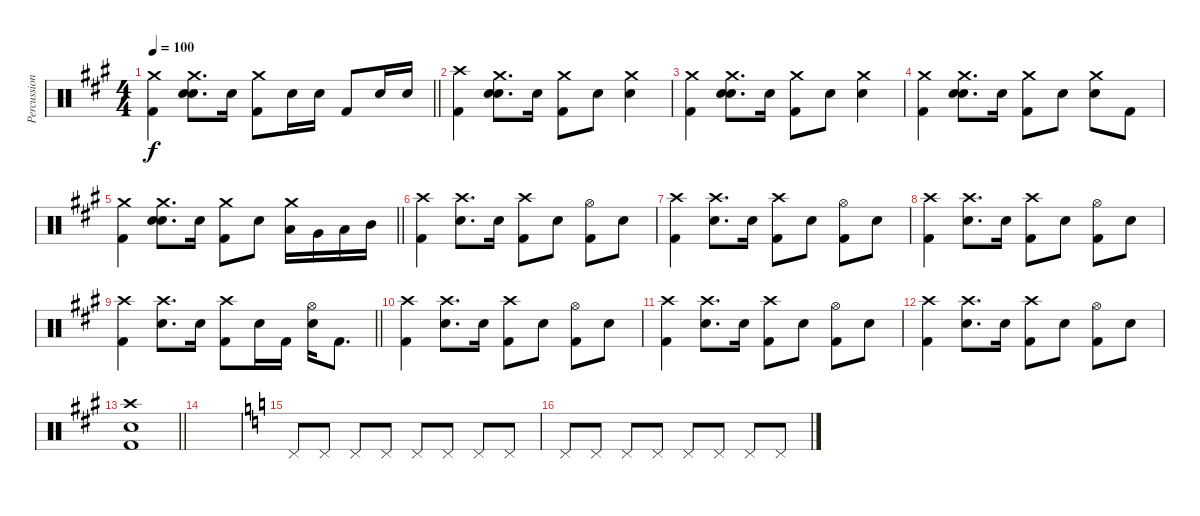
\track ("Percussion" "Percussion") {instrument percussion}
\staff {score}
\articulation defaults
\ts (4 4)
\tempo 100
\clef neutral
\barLineRight lightlight
\ks f#minor
("Crash medium (hit)" "Kick (hit) 2").4{dy f} ("Crash medium (hit)" "Snare (hit) 2" "Snare (hit) 2").8{d} "Snare (hit) 2".16 ("Crash medium (hit)" "Kick (hit) 2").8 "Snare (hit) 2".16 "Snare (hit) 2".16 "Kick (hit) 2".8 "Snare (hit) 2".16 "Snare (hit) 2".16 |
("Crash high (hit)" "Kick (hit) 2").4 ("Crash medium (hit)" "Snare (hit) 2" "Snare (hit) 2").8{d} "Snare (hit) 2".16 ("Crash medium (hit)" "Kick (hit) 2").8 "Snare (hit) 2".8 ("Crash medium (hit)" "Snare (hit) 2").4 |
("Crash medium (hit)" "Kick (hit) 2").4 ("Crash medium (hit)" "Snare (hit) 2" "Snare (hit) 2").8{d} "Snare (hit) 2".16 ("Crash medium (hit)" "Kick (hit) 2").8 "Snare (hit) 2".8 ("Crash medium (hit)" "Snare (hit) 2").4 |
("Crash medium (hit)" "Kick (hit) 2").4 ("Crash medium (hit)" "Snare (hit) 2" "Snare (hit) 2").8{d} "Snare (hit) 2".16 ("Crash medium (hit)" "Kick (hit) 2").8 "Snare (hit) 2".8 ("Crash medium (hit)" "Snare (hit) 2").8 "Kick (hit) 2".8 |
\barLineRight lightlight
("Crash medium (hit)" "Kick (hit) 2").4 ("Crash medium (hit)" "Snare (hit) 2" "Snare (hit) 2").8{d} "Snare (hit) 2".16 ("Crash medium (hit)" "Kick (hit) 2").8 "Snare (hit) 2".8 ("Crash medium (hit)" "Low Tom (hit)").16 "Very Low Tom (hit)".16 "Low Tom (hit)".16 "Mid Tom (hit)".16 |
("Crash high (hit)" "Kick (hit) 2").4 ("Crash high (hit)" "Snare (hit) 2").8{d} "Snare (hit) 2".16 ("Crash high (hit)" "Kick (hit) 2").8 "Snare (hit) 2".8 ("Hi-Hat (open)" "Kick (hit) 2").8 "Snare (hit) 2".8 |
("Crash high (hit)" "Kick (hit) 2").4 ("Crash high (hit)" "Snare (hit) 2").8{d} "Snare (hit) 2".16 ("Crash high (hit)" "Kick (hit) 2").8 "Snare (hit) 2".8 ("Hi-Hat (open)" "Kick (hit) 2").8 "Snare (hit) 2".8 |
("Crash high (hit)" "Kick (hit) 2").4 ("Crash high (hit)" "Snare (hit) 2").8{d} "Snare (hit) 2".16 ("Crash high (hit)" "Kick (hit) 2").8 "Snare (hit) 2".8 ("Hi-Hat (open)" "Kick (hit) 2").8 "Snare (hit) 2".8 |
\barLineRight lightlight
("Crash high (hit)" "Kick (hit) 2").4 ("Crash high (hit)" "Snare (hit) 2").8{d} "Snare (hit) 2".16 ("Crash high (hit)" "Kick (hit) 2").8 "Snare (hit) 2".16 "Kick (hit) 2".16 ("Hi-Hat (open)" "Snare (hit) 2").16 "Kick (hit) 2".8{d} |
("Crash high (hit)" "Kick (hit) 2").4 ("Crash high (hit)" "Snare (hit) 2").8{d} "Snare (hit) 2".16 ("Crash high (hit)" "Kick (hit) 2").8 "Snare (hit) 2".8 ("Hi-Hat (open)" "Kick (hit) 2").8 "Snare (hit) 2".8 |
("Crash high (hit)" "Kick (hit) 2").4 ("Crash high (hit)" "Snare (hit) 2").8{d} "Snare (hit) 2".16 ("Crash high (hit)" "Kick (hit) 2").8 "Snare (hit) 2".8 ("Hi-Hat (open)" "Kick (hit) 2").8 "Snare (hit) 2".8 |
("Crash high (hit)" "Kick (hit) 2").4 ("Crash high (hit)" "Snare (hit) 2").8{d} "Snare (hit) 2".16 ("Crash high (hit)" "Kick (hit) 2").8 "Snare (hit) 2".8 ("Hi-Hat (open)" "Kick (hit) 2").8 "Snare (hit) 2".8 |
\barLineRight lightlight
("Crash high (hit)" "Snare (hit) 2" "Kick (hit) 2").1 |
|
\ks c "Pedal Hi-Hat (hit)".8 "Pedal Hi-Hat (hit)".8 "Pedal Hi-Hat (hit)".8 "Pedal Hi-Hat (hit)".8 "Pedal Hi-Hat (hit)".8 "Pedal Hi-Hat (hit)".8 "Pedal Hi-Hat (hit)".8 "Pedal Hi-Hat (hit)".8
|
"Pedal Hi-Hat (hit)".8 "Pedal Hi-Hat (hit)".8 "Pedal Hi-Hat (hit)".8 "Pedal Hi-Hat (hit)".8 "Pedal Hi-Hat (hit)".8 "Pedal Hi-Hat (hit)".8 "Pedal Hi-Hat (hit)".8 "Pedal Hi-Hat (hit)".8
